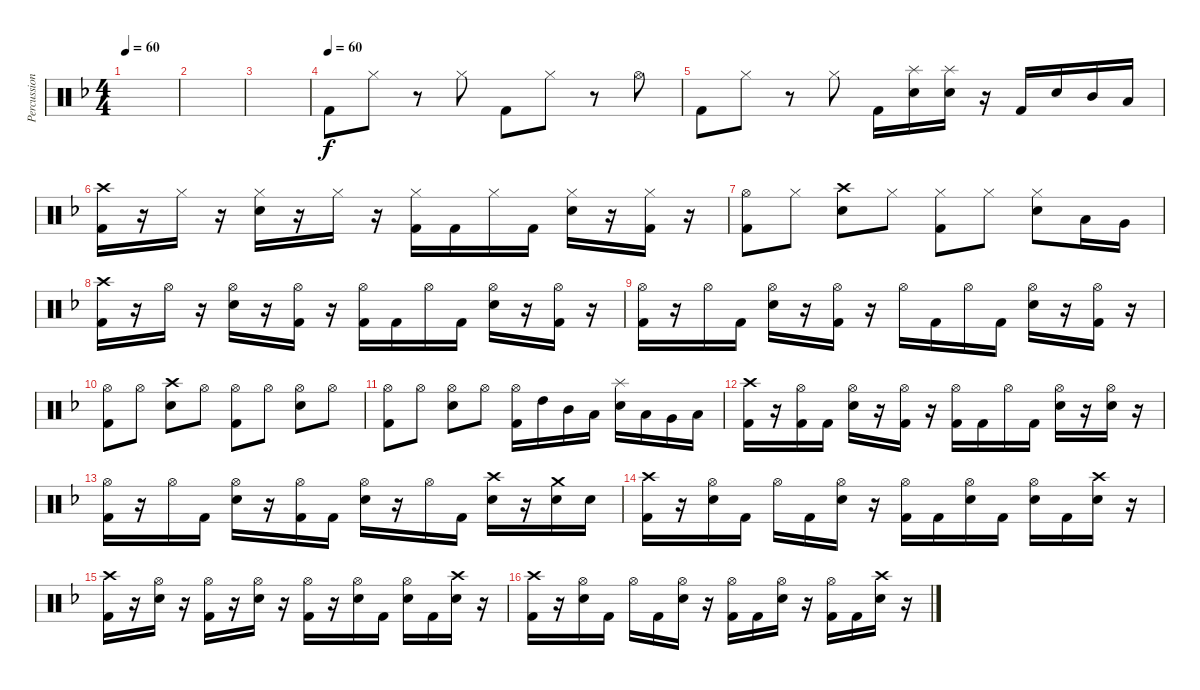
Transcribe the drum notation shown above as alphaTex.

\track ("Percussion" "Percussion") {instrument percussion}
\staff {score}
\articulation defaults
\ts (4 4)
\tempo 60
\clef neutral
\ks dminor
|
|
|
\tempo (60)
"Kick (hit) 2".8 "Hi-Hat (closed)".8 r.8 "Hi-Hat (closed)".8 "Kick (hit) 2".8 "Hi-Hat (closed)".8 r.8 "Hi-Hat (open)".8 |
"Kick (hit) 2".8 "Hi-Hat (closed)".8 r.8 "Hi-Hat (closed)".8 "Kick (hit) 2".16 ("Splash (hit)" "Snare (hit) 2").16 ("Splash (hit)" "Snare (hit) 2").16 r.16 "Kick (hit) 2".16 "Snare (hit) 2".16 "Mid Tom (hit)".16 "Low Tom (hit)".16 |
("Crash high (hit)" "Kick (hit) 2").16 r.16 "Hi-Hat (closed)".16 r.16 ("Hi-Hat (closed)" "Snare (hit) 2").16 r.16 "Hi-Hat (closed)".16 r.16 ("Hi-Hat (closed)" "Kick (hit) 2").16 "Kick (hit) 2".16 "Hi-Hat (closed)".16 "Kick (hit) 2".16 ("Hi-Hat (closed)" "Snare (hit) 2").16 r.16 ("Hi-Hat (closed)" "Kick (hit) 2").16 r.16 |
("Hi-Hat (open)" "Kick (hit) 2").8 "Hi-Hat (closed)".8 ("Crash high (hit)" "Snare (hit) 2").8 "Hi-Hat (closed)".8 ("Hi-Hat (closed)" "Kick (hit) 2").8 "Hi-Hat (closed)".8 ("Hi-Hat (closed)" "Snare (hit) 2").8 "Low Tom (hit)".16 "Very Low Tom (hit)".16 |
("Crash high (hit)" "Kick (hit) 2").16 r.16 "Hi-Hat (open)".16 r.16 ("Hi-Hat (open)" "Snare (hit) 2").16 r.16 ("Hi-Hat (open)" "Kick (hit) 2").16 r.16 ("Hi-Hat (open)" "Kick (hit) 2").16 "Kick (hit) 2".16 "Hi-Hat (open)".16 "Kick (hit) 2".16 ("Hi-Hat (open)" "Snare (hit) 2").16 r.16 ("Hi-Hat (open)" "Kick (hit) 2").16 r.16 |
("Hi-Hat (open)" "Kick (hit) 2").16 r.16 "Hi-Hat (open)".16 "Kick (hit) 2".16 ("Hi-Hat (open)" "Snare (hit) 2").16 r.16 ("Hi-Hat (open)" "Kick (hit) 2").16 r.16 "Hi-Hat (open)".16 "Kick (hit) 2".16 "Hi-Hat (open)".16 "Kick (hit) 2".16 ("Hi-Hat (open)" "Snare (hit) 2").16 r.16 ("Hi-Hat (open)" "Kick (hit) 2").16 r.16 |
("Hi-Hat (open)" "Kick (hit) 2").8 "Hi-Hat (open)".8 ("Crash high (hit)" "Snare (hit) 2").8 "Hi-Hat (open)".8 ("Hi-Hat (open)" "Kick (hit) 2").8 "Hi-Hat (open)".8 ("Hi-Hat (open)" "Snare (hit) 2").8 "Hi-Hat (open)".8 |
("Hi-Hat (open)" "Kick (hit) 2").8 "Hi-Hat (open)".8 ("Hi-Hat (open)" "Snare (hit) 2").8 "Hi-Hat (open)".8 ("Hi-Hat (open)" "Kick (hit) 2").16 "High Tom (hit)".16 "Mid Tom (hit)".16 "Low Tom (hit)".16 ("Splash (hit)" "Snare (hit) 2").16 "Low Tom (hit)".16 "Very Low Tom (hit)".16 "Low Floor Tom (hit)".16 |
("Crash high (hit)" "Kick (hit) 2").16 r.16 ("Hi-Hat (open)" "Kick (hit) 2").16 "Kick (hit) 2".16 ("Hi-Hat (open)" "Snare (hit) 2").16 r.16 ("Hi-Hat (open)" "Kick (hit) 2").16 r.16 ("Hi-Hat (open)" "Kick (hit) 2").16 "Kick (hit) 2".16 "Hi-Hat (open)".16 "Kick (hit) 2".16 ("Hi-Hat (open)" "Snare (hit) 2").16 r.16 ("Hi-Hat (open)" "Snare (hit) 2").16 r.16 |
("Hi-Hat (open)" "Kick (hit) 2").16 r.16 "Hi-Hat (open)".16 "Kick (hit) 2".16 ("Hi-Hat (open)" "Snare (hit) 2").16 r.16 ("Hi-Hat (open)" "Kick (hit) 2").16 "Kick (hit) 2".16 ("Hi-Hat (open)" "Snare (hit) 2").16 r.16 "Hi-Hat (open)".16 "Kick (hit) 2".16 ("Crash high (hit)" "Snare (hit) 2").16 r.16 ("Crash medium (hit)" "Snare (hit) 2").16 "Snare (hit) 2".16 |
("Crash high (hit)" "Kick (hit) 2").16 r.16 ("Hi-Hat (open)" "Snare (hit) 2").16 "Kick (hit) 2".16 "Hi-Hat (open)".16 "Kick (hit) 2".16 ("Hi-Hat (open)" "Snare (hit) 2").16 r.16 ("Hi-Hat (open)" "Kick (hit) 2").16 "Kick (hit) 2".16 ("Hi-Hat (open)" "Snare (hit) 2").16 "Kick (hit) 2".16 ("Hi-Hat (open)" "Snare (hit) 2").16 "Kick (hit) 2".16 ("Crash high (hit)" "Snare (hit) 2").16 r.16 |
("Crash high (hit)" "Kick (hit) 2").16 r.16 ("Hi-Hat (open)" "Snare (hit) 2").16 r.16 ("Hi-Hat (open)" "Kick (hit) 2").16 r.16 ("Hi-Hat (open)" "Snare (hit) 2").16 r.16 ("Hi-Hat (open)" "Kick (hit) 2").16 r.16 ("Hi-Hat (open)" "Snare (hit) 2").16 "Kick (hit) 2".16 ("Hi-Hat (open)" "Snare (hit) 2").16 "Kick (hit) 2".16 ("Crash high (hit)" "Snare (hit) 2").16 r.16 |
("Crash high (hit)" "Kick (hit) 2").16 r.16 ("Hi-Hat (open)" "Snare (hit) 2").16 "Kick (hit) 2".16 "Hi-Hat (open)".16 "Kick (hit) 2".16 ("Hi-Hat (open)" "Snare (hit) 2").16 r.16 ("Hi-Hat (open)" "Kick (hit) 2").16 "Kick (hit) 2".16 ("Hi-Hat (open)" "Snare (hit) 2").16 r.16 ("Hi-Hat (open)" "Kick (hit) 2").16 "Kick (hit) 2".16 ("Crash high (hit)" "Snare (hit) 2").16 r.16
